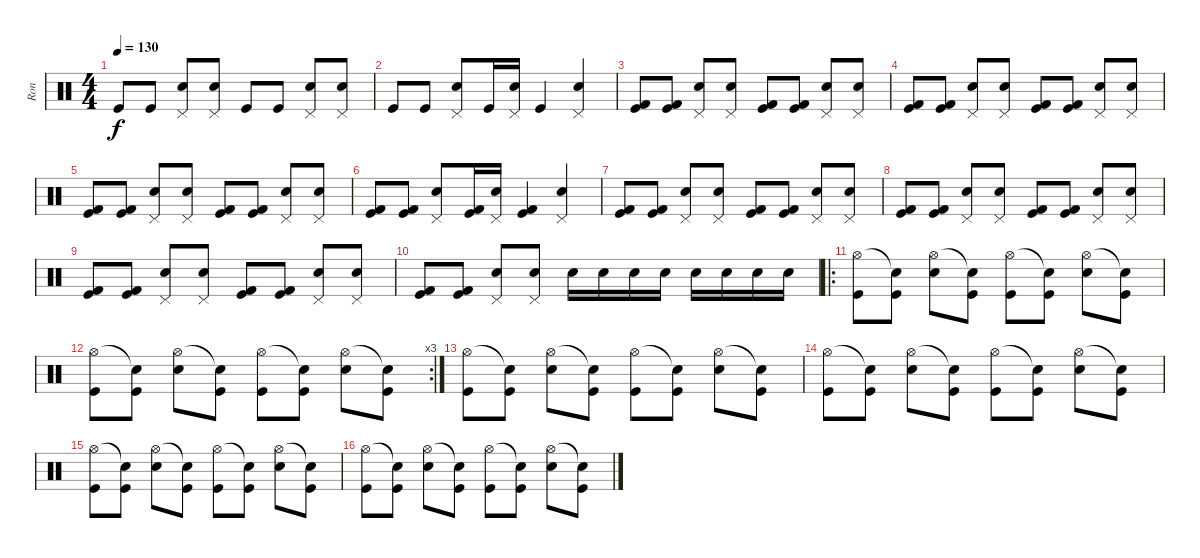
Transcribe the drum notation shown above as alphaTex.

\track ("Ron" "Ron") {instrument percussion}
\staff {score}
\articulation defaults
\ts (4 4)
\tempo 130
\clef neutral
\ks c "Kick (hit)".8{dy f} "Kick (hit)".8
("Pedal Hi-Hat (hit)" "Electric Snare (hit)").8 ("Pedal Hi-Hat (hit)" "Electric Snare (hit)").8 "Kick (hit)".8 "Kick (hit)".8 ("Pedal Hi-Hat (hit)" "Electric Snare (hit)").8 ("Pedal Hi-Hat (hit)" "Electric Snare (hit)").8 |
"Kick (hit)".8 "Kick (hit)".8 ("Pedal Hi-Hat (hit)" "Electric Snare (hit)").8 "Kick (hit)".16 ("Pedal Hi-Hat (hit)" "Electric Snare (hit)").16 "Kick (hit)".4 ("Pedal Hi-Hat (hit)" "Electric Snare (hit)").4 |
("Kick (hit) 2" "Kick (hit)").8 ("Kick (hit) 2" "Kick (hit)").8 ("Pedal Hi-Hat (hit)" "Electric Snare (hit)").8 ("Pedal Hi-Hat (hit)" "Electric Snare (hit)").8 ("Kick (hit) 2" "Kick (hit)").8 ("Kick (hit) 2" "Kick (hit)").8 ("Pedal Hi-Hat (hit)" "Electric Snare (hit)").8 ("Pedal Hi-Hat (hit)" "Electric Snare (hit)").8 |
("Kick (hit) 2" "Kick (hit)").8 ("Kick (hit) 2" "Kick (hit)").8 ("Pedal Hi-Hat (hit)" "Electric Snare (hit)").8 ("Pedal Hi-Hat (hit)" "Electric Snare (hit)").8 ("Kick (hit) 2" "Kick (hit)").8 ("Kick (hit) 2" "Kick (hit)").8 ("Pedal Hi-Hat (hit)" "Electric Snare (hit)").8 ("Pedal Hi-Hat (hit)" "Electric Snare (hit)").8 |
("Kick (hit) 2" "Kick (hit)").8 ("Kick (hit) 2" "Kick (hit)").8 ("Pedal Hi-Hat (hit)" "Electric Snare (hit)").8 ("Pedal Hi-Hat (hit)" "Electric Snare (hit)").8 ("Kick (hit) 2" "Kick (hit)").8 ("Kick (hit) 2" "Kick (hit)").8 ("Pedal Hi-Hat (hit)" "Electric Snare (hit)").8 ("Pedal Hi-Hat (hit)" "Electric Snare (hit)").8 |
("Kick (hit) 2" "Kick (hit)").8 ("Kick (hit) 2" "Kick (hit)").8 ("Pedal Hi-Hat (hit)" "Electric Snare (hit)").8 ("Kick (hit) 2" "Kick (hit)").16 ("Pedal Hi-Hat (hit)" "Electric Snare (hit)").16 ("Kick (hit) 2" "Kick (hit)").4 ("Pedal Hi-Hat (hit)" "Electric Snare (hit)").4 |
("Kick (hit) 2" "Kick (hit)").8 ("Kick (hit) 2" "Kick (hit)").8 ("Pedal Hi-Hat (hit)" "Electric Snare (hit)").8 ("Pedal Hi-Hat (hit)" "Electric Snare (hit)").8 ("Kick (hit) 2" "Kick (hit)").8 ("Kick (hit) 2" "Kick (hit)").8 ("Pedal Hi-Hat (hit)" "Electric Snare (hit)").8 ("Pedal Hi-Hat (hit)" "Electric Snare (hit)").8 |
("Kick (hit) 2" "Kick (hit)").8 ("Kick (hit) 2" "Kick (hit)").8 ("Pedal Hi-Hat (hit)" "Electric Snare (hit)").8 ("Pedal Hi-Hat (hit)" "Electric Snare (hit)").8 ("Kick (hit) 2" "Kick (hit)").8 ("Kick (hit) 2" "Kick (hit)").8 ("Pedal Hi-Hat (hit)" "Electric Snare (hit)").8 ("Pedal Hi-Hat (hit)" "Electric Snare (hit)").8 |
("Kick (hit) 2" "Kick (hit)").8 ("Kick (hit) 2" "Kick (hit)").8 ("Pedal Hi-Hat (hit)" "Electric Snare (hit)").8 ("Pedal Hi-Hat (hit)" "Electric Snare (hit)").8 ("Kick (hit) 2" "Kick (hit)").8 ("Kick (hit) 2" "Kick (hit)").8 ("Pedal Hi-Hat (hit)" "Electric Snare (hit)").8 ("Pedal Hi-Hat (hit)" "Electric Snare (hit)").8 |
("Kick (hit) 2" "Kick (hit)").8 ("Kick (hit) 2" "Kick (hit)").8 ("Pedal Hi-Hat (hit)" "Electric Snare (hit)").8 ("Pedal Hi-Hat (hit)" "Electric Snare (hit)").8 "Electric Snare (hit)".16 "Electric Snare (hit)".16 "Electric Snare (hit)".16 "Electric Snare (hit)".16 "Electric Snare (hit)".16 "Electric Snare (hit)".16 "Electric Snare (hit)".16 "Electric Snare (hit)".16 |
\ro
("Hi-Hat (open)" "Kick (hit)").8 ("Snare (hit)"{t} "Kick (hit)").8 ("Hi-Hat (open)" "Electric Snare (hit)").8 ("Snare (hit)"{t} "Kick (hit)").8 ("Hi-Hat (open)" "Kick (hit)").8 ("Snare (hit)"{t} "Kick (hit)").8 ("Hi-Hat (open)" "Electric Snare (hit)").8 ("Snare (hit)"{t} "Kick (hit)").8 |
\rc 3
("Hi-Hat (open)" "Kick (hit)").8 ("Snare (hit)"{t} "Kick (hit)").8 ("Hi-Hat (open)" "Electric Snare (hit)").8 ("Snare (hit)"{t} "Kick (hit)").8 ("Hi-Hat (open)" "Kick (hit)").8 ("Snare (hit)"{t} "Kick (hit)").8 ("Hi-Hat (open)" "Electric Snare (hit)").8 ("Snare (hit)"{t} "Kick (hit)").8 |
("Hi-Hat (open)" "Kick (hit)").8 ("Snare (hit)"{t} "Kick (hit)").8 ("Hi-Hat (open)" "Electric Snare (hit)").8 ("Snare (hit)"{t} "Kick (hit)").8 ("Hi-Hat (open)" "Kick (hit)").8 ("Snare (hit)"{t} "Kick (hit)").8 ("Hi-Hat (open)" "Electric Snare (hit)").8 ("Snare (hit)"{t} "Kick (hit)").8 |
("Hi-Hat (open)" "Kick (hit)").8 ("Snare (hit)"{t} "Kick (hit)").8 ("Hi-Hat (open)" "Electric Snare (hit)").8 ("Snare (hit)"{t} "Kick (hit)").8 ("Hi-Hat (open)" "Kick (hit)").8 ("Snare (hit)"{t} "Kick (hit)").8 ("Hi-Hat (open)" "Electric Snare (hit)").8 ("Snare (hit)"{t} "Kick (hit)").8 |
("Hi-Hat (open)" "Kick (hit)").8 ("Snare (hit)"{t} "Kick (hit)").8 ("Hi-Hat (open)" "Electric Snare (hit)").8 ("Snare (hit)"{t} "Kick (hit)").8 ("Hi-Hat (open)" "Kick (hit)").8 ("Snare (hit)"{t} "Kick (hit)").8 ("Hi-Hat (open)" "Electric Snare (hit)").8 ("Snare (hit)"{t} "Kick (hit)").8 |
("Hi-Hat (open)" "Kick (hit)").8 ("Snare (hit)"{t} "Kick (hit)").8 ("Hi-Hat (open)" "Electric Snare (hit)").8 ("Snare (hit)"{t} "Kick (hit)").8 ("Hi-Hat (open)" "Kick (hit)").8 ("Snare (hit)"{t} "Kick (hit)").8 ("Hi-Hat (open)" "Electric Snare (hit)").8 ("Snare (hit)"{t} "Kick (hit)").8
